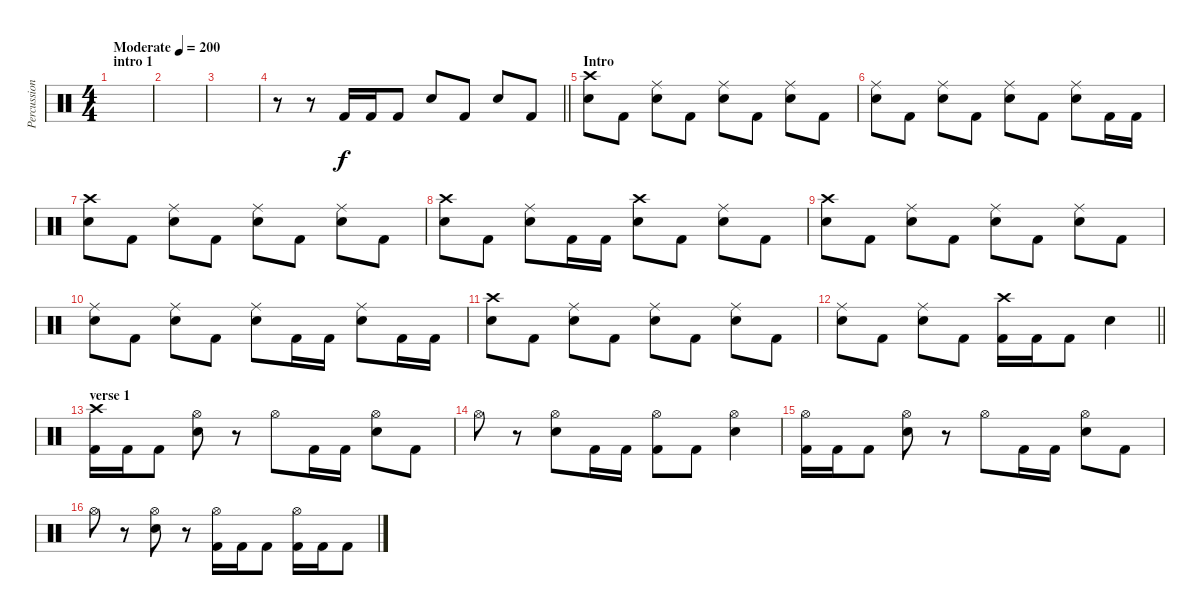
\track ("Percussion" "Percussion") {instrument percussion}
\staff {score}
\articulation defaults
\ts (4 4)
\section ("" "intro 1")
\tempo (200 "Moderate")
\clef neutral
\ks c
|
|
|
\barLineRight lightlight
r.8 r.8 "Kick (hit) 2".16 "Kick (hit) 2".16 "Kick (hit) 2".8 "Snare (hit) 2".8 "Kick (hit) 2".8 "Snare (hit) 2".8 "Kick (hit) 2".8 |
\section ("" "Intro")
("Crash high (hit)" "Snare (hit) 2").8 "Kick (hit) 2".8 ("Ride (middle)" "Snare (hit) 2").8 "Kick (hit) 2".8 ("Ride (middle)" "Snare (hit) 2").8 "Kick (hit) 2".8 ("Ride (middle)" "Snare (hit) 2").8 "Kick (hit) 2".8 |
("Ride (middle)" "Snare (hit) 2").8 "Kick (hit) 2".8 ("Ride (middle)" "Snare (hit) 2").8 "Kick (hit) 2".8 ("Ride (middle)" "Snare (hit) 2").8 "Kick (hit) 2".8 ("Ride (middle)" "Snare (hit) 2").8 "Kick (hit) 2".16 "Kick (hit) 2".16 |
("Crash high (hit)" "Snare (hit) 2").8 "Kick (hit) 2".8 ("Ride (middle)" "Snare (hit) 2").8 "Kick (hit) 2".8 ("Ride (middle)" "Snare (hit) 2").8 "Kick (hit) 2".8 ("Ride (middle)" "Snare (hit) 2").8 "Kick (hit) 2".8 |
("Crash high (hit)" "Snare (hit) 2").8 "Kick (hit) 2".8 ("Ride (middle)" "Snare (hit) 2").8 "Kick (hit) 2".16 "Kick (hit) 2".16 ("Crash high (hit)" "Snare (hit) 2").8 "Kick (hit) 2".8 ("Ride (middle)" "Snare (hit) 2").8 "Kick (hit) 2".8 |
("Crash high (hit)" "Snare (hit) 2").8 "Kick (hit) 2".8 ("Ride (middle)" "Snare (hit) 2").8 "Kick (hit) 2".8 ("Ride (middle)" "Snare (hit) 2").8 "Kick (hit) 2".8 ("Ride (middle)" "Snare (hit) 2").8 "Kick (hit) 2".8 |
("Ride (middle)" "Snare (hit) 2").8 "Kick (hit) 2".8 ("Ride (middle)" "Snare (hit) 2").8 "Kick (hit) 2".8 ("Ride (middle)" "Snare (hit) 2").8 "Kick (hit) 2".16 "Kick (hit) 2".16 ("Ride (middle)" "Snare (hit) 2").8 "Kick (hit) 2".16 "Kick (hit) 2".16 |
("Crash high (hit)" "Snare (hit) 2").8 "Kick (hit) 2".8 ("Ride (middle)" "Snare (hit) 2").8 "Kick (hit) 2".8 ("Ride (middle)" "Snare (hit) 2").8 "Kick (hit) 2".8 ("Ride (middle)" "Snare (hit) 2").8 "Kick (hit) 2".8 |
\barLineRight lightlight
("Ride (middle)" "Snare (hit) 2").8 "Kick (hit) 2".8 ("Ride (middle)" "Snare (hit) 2").8 "Kick (hit) 2".8 ("Crash high (hit)" "Kick (hit) 2").16 "Kick (hit) 2".16 "Kick (hit) 2".8 "Snare (hit) 2".4 |
\section ("" "verse 1")
("Crash high (hit)" "Kick (hit) 2").16 "Kick (hit) 2".16 "Kick (hit) 2".8 ("Hi-Hat (open)" "Snare (hit) 2").8 r.8 "Hi-Hat (open)".8 "Kick (hit) 2".16 "Kick (hit) 2".16 ("Hi-Hat (open)" "Snare (hit) 2").8 "Kick (hit) 2".8 |
"Hi-Hat (open)".8 r.8 ("Hi-Hat (open)" "Snare (hit) 2").8 "Kick (hit) 2".16 "Kick (hit) 2".16 ("Hi-Hat (open)" "Kick (hit) 2").8 "Kick (hit) 2".8 ("Hi-Hat (open)" "Snare (hit) 2").4 |
("Hi-Hat (open)" "Kick (hit) 2").16 "Kick (hit) 2".16 "Kick (hit) 2".8 ("Hi-Hat (open)" "Snare (hit) 2").8 r.8 "Hi-Hat (open)".8 "Kick (hit) 2".16 "Kick (hit) 2".16 ("Hi-Hat (open)" "Snare (hit) 2").8 "Kick (hit) 2".8 |
"Hi-Hat (open)".8 r.8 ("Hi-Hat (open)" "Snare (hit) 2").8 r.8 ("Hi-Hat (open)" "Kick (hit) 2").16 "Kick (hit) 2".16 "Kick (hit) 2".8 ("Hi-Hat (open)" "Kick (hit) 2").16 "Kick (hit) 2".16 "Kick (hit) 2".8
